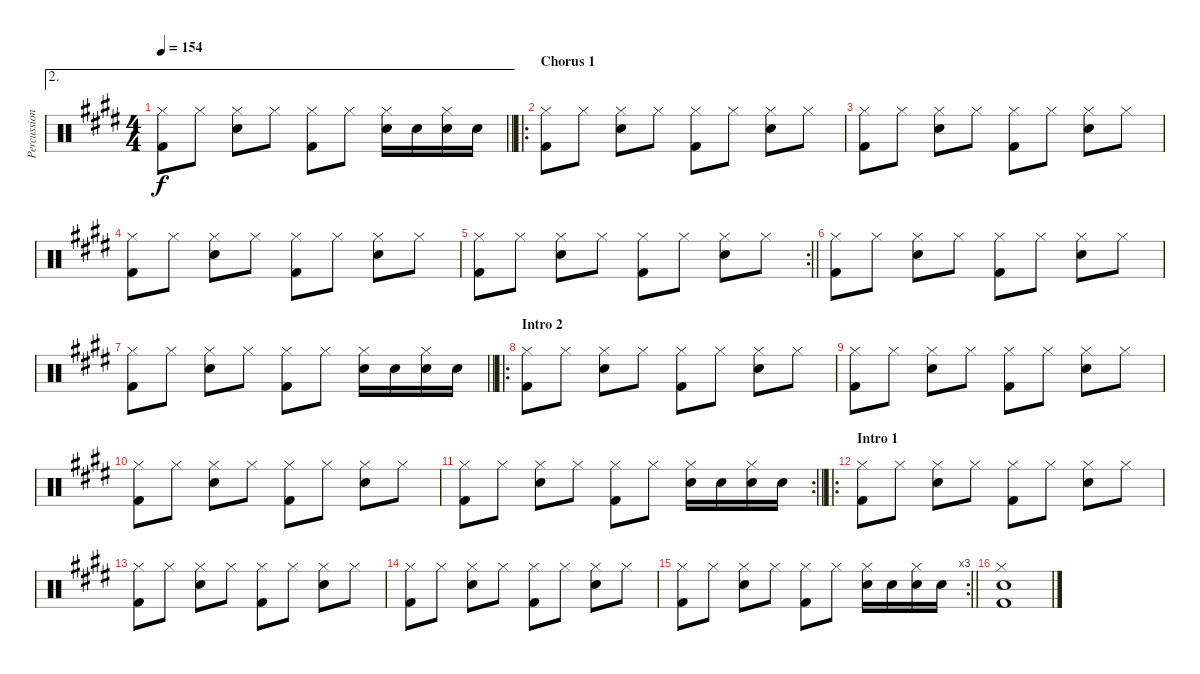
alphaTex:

\track ("Percussion" "Percussion") {instrument percussion}
\staff {score}
\articulation defaults
\ae 2
\ts (4 4)
\tempo 154
\clef neutral
\barLineRight lightlight
\ks e
("Hi-Hat (closed)" "Kick (hit) 2").8{dy f} "Hi-Hat (closed)".8 ("Hi-Hat (closed)" "Snare (hit) 2").8 "Hi-Hat (closed)".8 ("Hi-Hat (closed)" "Kick (hit) 2").8 "Hi-Hat (closed)".8 ("Hi-Hat (closed)" "Snare (hit) 2").16 "Snare (hit) 2".16 ("Hi-Hat (closed)" "Snare (hit) 2").16 "Snare (hit) 2".16 |
\ro
\section ("" "Chorus 1")
("Hi-Hat (closed)" "Kick (hit) 2").8 "Hi-Hat (closed)".8 ("Hi-Hat (closed)" "Snare (hit) 2").8 "Hi-Hat (closed)".8 ("Hi-Hat (closed)" "Kick (hit) 2").8 "Hi-Hat (closed)".8 ("Hi-Hat (closed)" "Snare (hit) 2").8 "Hi-Hat (closed)".8 |
("Hi-Hat (closed)" "Kick (hit) 2").8 "Hi-Hat (closed)".8 ("Hi-Hat (closed)" "Snare (hit) 2").8 "Hi-Hat (closed)".8 ("Hi-Hat (closed)" "Kick (hit) 2").8 "Hi-Hat (closed)".8 ("Hi-Hat (closed)" "Snare (hit) 2").8 "Hi-Hat (closed)".8 |
("Hi-Hat (closed)" "Kick (hit) 2").8 "Hi-Hat (closed)".8 ("Hi-Hat (closed)" "Snare (hit) 2").8 "Hi-Hat (closed)".8 ("Hi-Hat (closed)" "Kick (hit) 2").8 "Hi-Hat (closed)".8 ("Hi-Hat (closed)" "Snare (hit) 2").8 "Hi-Hat (closed)".8 |
\rc 2
\barLineRight lightlight
("Hi-Hat (closed)" "Kick (hit) 2").8 "Hi-Hat (closed)".8 ("Hi-Hat (closed)" "Snare (hit) 2").8 "Hi-Hat (closed)".8 ("Hi-Hat (closed)" "Kick (hit) 2").8 "Hi-Hat (closed)".8 ("Hi-Hat (closed)" "Snare (hit) 2").8 "Hi-Hat (closed)".8 |
("Hi-Hat (closed)" "Kick (hit) 2").8 "Hi-Hat (closed)".8 ("Hi-Hat (closed)" "Snare (hit) 2").8 "Hi-Hat (closed)".8 ("Hi-Hat (closed)" "Kick (hit) 2").8 "Hi-Hat (closed)".8 ("Hi-Hat (closed)" "Snare (hit) 2").8 "Hi-Hat (closed)".8 |
\barLineRight lightlight
("Hi-Hat (closed)" "Kick (hit) 2").8 "Hi-Hat (closed)".8 ("Hi-Hat (closed)" "Snare (hit) 2").8 "Hi-Hat (closed)".8 ("Hi-Hat (closed)" "Kick (hit) 2").8 "Hi-Hat (closed)".8 ("Hi-Hat (closed)" "Snare (hit) 2").16 "Snare (hit) 2".16 ("Hi-Hat (closed)" "Snare (hit) 2").16 "Snare (hit) 2".16 |
\ro
\section ("" "Intro 2")
("Hi-Hat (closed)" "Kick (hit) 2").8 "Hi-Hat (closed)".8 ("Hi-Hat (closed)" "Snare (hit) 2").8 "Hi-Hat (closed)".8 ("Hi-Hat (closed)" "Kick (hit) 2").8 "Hi-Hat (closed)".8 ("Hi-Hat (closed)" "Snare (hit) 2").8 "Hi-Hat (closed)".8 |
("Hi-Hat (closed)" "Kick (hit) 2").8 "Hi-Hat (closed)".8 ("Hi-Hat (closed)" "Snare (hit) 2").8 "Hi-Hat (closed)".8 ("Hi-Hat (closed)" "Kick (hit) 2").8 "Hi-Hat (closed)".8 ("Hi-Hat (closed)" "Snare (hit) 2").8 "Hi-Hat (closed)".8 |
("Hi-Hat (closed)" "Kick (hit) 2").8 "Hi-Hat (closed)".8 ("Hi-Hat (closed)" "Snare (hit) 2").8 "Hi-Hat (closed)".8 ("Hi-Hat (closed)" "Kick (hit) 2").8 "Hi-Hat (closed)".8 ("Hi-Hat (closed)" "Snare (hit) 2").8 "Hi-Hat (closed)".8 |
\rc 2
\barLineRight lightlight
("Hi-Hat (closed)" "Kick (hit) 2").8 "Hi-Hat (closed)".8 ("Hi-Hat (closed)" "Snare (hit) 2").8 "Hi-Hat (closed)".8 ("Hi-Hat (closed)" "Kick (hit) 2").8 "Hi-Hat (closed)".8 ("Hi-Hat (closed)" "Snare (hit) 2").16 "Snare (hit) 2".16 ("Hi-Hat (closed)" "Snare (hit) 2").16 "Snare (hit) 2".16 |
\ro
\section ("" "Intro 1")
("Hi-Hat (closed)" "Kick (hit) 2").8 "Hi-Hat (closed)".8 ("Hi-Hat (closed)" "Snare (hit) 2").8 "Hi-Hat (closed)".8 ("Hi-Hat (closed)" "Kick (hit) 2").8 "Hi-Hat (closed)".8 ("Hi-Hat (closed)" "Snare (hit) 2").8 "Hi-Hat (closed)".8 |
("Hi-Hat (closed)" "Kick (hit) 2").8 "Hi-Hat (closed)".8 ("Hi-Hat (closed)" "Snare (hit) 2").8 "Hi-Hat (closed)".8 ("Hi-Hat (closed)" "Kick (hit) 2").8 "Hi-Hat (closed)".8 ("Hi-Hat (closed)" "Snare (hit) 2").8 "Hi-Hat (closed)".8 |
("Hi-Hat (closed)" "Kick (hit) 2").8 "Hi-Hat (closed)".8 ("Hi-Hat (closed)" "Snare (hit) 2").8 "Hi-Hat (closed)".8 ("Hi-Hat (closed)" "Kick (hit) 2").8 "Hi-Hat (closed)".8 ("Hi-Hat (closed)" "Snare (hit) 2").8 "Hi-Hat (closed)".8 |
\rc 3
\barLineRight lightlight
("Hi-Hat (closed)" "Kick (hit) 2").8 "Hi-Hat (closed)".8 ("Hi-Hat (closed)" "Snare (hit) 2").8 "Hi-Hat (closed)".8 ("Hi-Hat (closed)" "Kick (hit) 2").8 "Hi-Hat (closed)".8 ("Hi-Hat (closed)" "Snare (hit) 2").16 "Snare (hit) 2".16 ("Hi-Hat (closed)" "Snare (hit) 2").16 "Snare (hit) 2".16 |
("Hi-Hat (closed)" "Snare (hit) 2" "Kick (hit) 2").1
